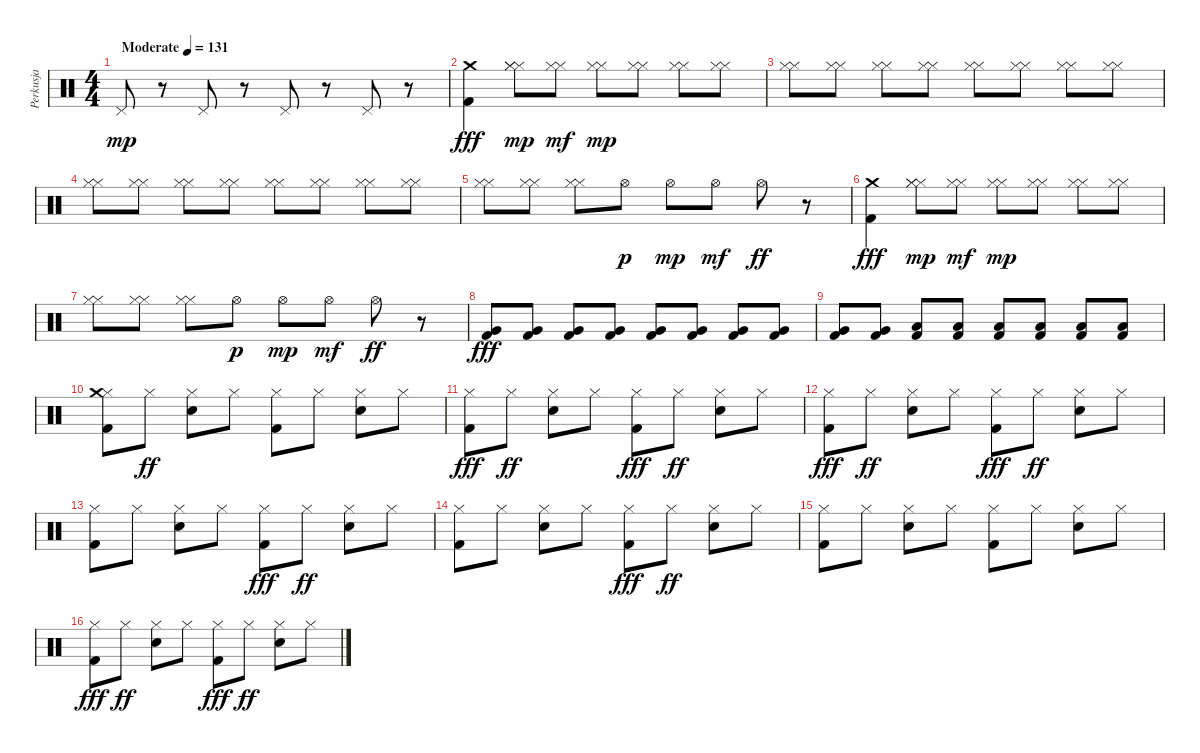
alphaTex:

\track ("Perkusja" "Perkusja") {instrument percussion}
\staff {score}
\articulation defaults
\ts (4 4)
\tempo (131 "Moderate")
\clef neutral
\ks c "Pedal Hi-Hat (hit)".8{dy mp}
r.8 "Pedal Hi-Hat (hit)".8 r.8 "Pedal Hi-Hat (hit)".8 r.8 "Pedal Hi-Hat (hit)".8 r.8 |
("Crash medium (hit)" "Kick (hit) 2").4{dy fff} ("Hi-Hat (closed)" "Hi-Hat (closed)" "Hi-Hat (closed)").8{dy mp} ("Hi-Hat (closed)" "Hi-Hat (closed)").8{dy mf} ("Hi-Hat (closed)" "Hi-Hat (closed)").8{dy mp} ("Hi-Hat (closed)" "Hi-Hat (closed)").8 ("Hi-Hat (closed)" "Hi-Hat (closed)").8 ("Hi-Hat (closed)" "Hi-Hat (closed)").8 |
("Hi-Hat (closed)" "Hi-Hat (closed)").8 ("Hi-Hat (closed)" "Hi-Hat (closed)").8 ("Hi-Hat (closed)" "Hi-Hat (closed)").8 ("Hi-Hat (closed)" "Hi-Hat (closed)").8 ("Hi-Hat (closed)" "Hi-Hat (closed)").8 ("Hi-Hat (closed)" "Hi-Hat (closed)").8 ("Hi-Hat (closed)" "Hi-Hat (closed)").8 ("Hi-Hat (closed)" "Hi-Hat (closed)").8 |
("Hi-Hat (closed)" "Hi-Hat (closed)").8 ("Hi-Hat (closed)" "Hi-Hat (closed)").8 ("Hi-Hat (closed)" "Hi-Hat (closed)").8 ("Hi-Hat (closed)" "Hi-Hat (closed)").8 ("Hi-Hat (closed)" "Hi-Hat (closed)").8 ("Hi-Hat (closed)" "Hi-Hat (closed)").8 ("Hi-Hat (closed)" "Hi-Hat (closed)").8 ("Hi-Hat (closed)" "Hi-Hat (closed)").8 |
("Hi-Hat (closed)" "Hi-Hat (closed)").8 ("Hi-Hat (closed)" "Hi-Hat (closed)").8 ("Hi-Hat (closed)" "Hi-Hat (closed)").8 "Hi-Hat (open)".8{dy p} "Hi-Hat (open)".8{dy mp} "Hi-Hat (open)".8{dy mf} "Hi-Hat (open)".8{dy ff} r.8 |
("Crash medium (hit)" "Kick (hit) 2").4{dy fff} ("Hi-Hat (closed)" "Hi-Hat (closed)" "Hi-Hat (closed)").8{dy mp} ("Hi-Hat (closed)" "Hi-Hat (closed)").8{dy mf} ("Hi-Hat (closed)" "Hi-Hat (closed)").8{dy mp} ("Hi-Hat (closed)" "Hi-Hat (closed)").8 ("Hi-Hat (closed)" "Hi-Hat (closed)").8 ("Hi-Hat (closed)" "Hi-Hat (closed)").8 |
("Hi-Hat (closed)" "Hi-Hat (closed)").8 ("Hi-Hat (closed)" "Hi-Hat (closed)").8 ("Hi-Hat (closed)" "Hi-Hat (closed)").8 "Hi-Hat (open)".8{dy p} "Hi-Hat (open)".8{dy mp} "Hi-Hat (open)".8{dy mf} "Hi-Hat (open)".8{dy ff} r.8 |
("Kick (hit) 2" "Very Low Tom (hit)").8{dy fff} ("Very Low Tom (hit)" "Kick (hit) 2").8 ("Very Low Tom (hit)" "Kick (hit) 2").8 ("Very Low Tom (hit)" "Kick (hit) 2").8 ("Kick (hit) 2" "Very Low Tom (hit)").8 ("Very Low Tom (hit)" "Kick (hit) 2").8 ("Very Low Tom (hit)" "Kick (hit) 2").8 ("Kick (hit) 2" "Very Low Tom (hit)").8 |
("Very Low Tom (hit)" "Kick (hit) 2").8 ("Very Low Tom (hit)" "Kick (hit) 2").8 ("Kick (hit) 2" "Low Floor Tom (hit)").8 ("Low Floor Tom (hit)" "Kick (hit) 2").8 ("Kick (hit) 2" "Low Floor Tom (hit)").8 ("Kick (hit) 2" "Low Floor Tom (hit)").8 ("Kick (hit) 2" "Low Floor Tom (hit)").8 ("Kick (hit) 2" "Low Floor Tom (hit)").8 |
("Hi-Hat (closed)" "Kick (hit) 2" "Crash medium (hit)").8 "Hi-Hat (closed)".8{dy ff} ("Hi-Hat (closed)" "Electric Snare (hit)").8 "Hi-Hat (closed)".8 ("Kick (hit) 2" "Hi-Hat (closed)").8 "Hi-Hat (closed)".8 ("Hi-Hat (closed)" "Electric Snare (hit)").8 "Hi-Hat (closed)".8 |
("Hi-Hat (closed)" "Kick (hit) 2").8{dy fff} "Hi-Hat (closed)".8{dy ff} ("Electric Snare (hit)" "Hi-Hat (closed)").8 "Hi-Hat (closed)".8 ("Hi-Hat (closed)" "Kick (hit) 2").8{dy fff} "Hi-Hat (closed)".8{dy ff} ("Hi-Hat (closed)" "Electric Snare (hit)").8 "Hi-Hat (closed)".8 |
("Hi-Hat (closed)" "Kick (hit) 2").8{dy fff} "Hi-Hat (closed)".8{dy ff} ("Electric Snare (hit)" "Hi-Hat (closed)").8 "Hi-Hat (closed)".8 ("Hi-Hat (closed)" "Kick (hit) 2").8{dy fff} "Hi-Hat (closed)".8{dy ff} ("Electric Snare (hit)" "Hi-Hat (closed)").8 "Hi-Hat (closed)".8 |
("Kick (hit) 2" "Hi-Hat (closed)").8 "Hi-Hat (closed)".8 ("Hi-Hat (closed)" "Electric Snare (hit)").8 "Hi-Hat (closed)".8 ("Hi-Hat (closed)" "Kick (hit) 2").8{dy fff} "Hi-Hat (closed)".8{dy ff} ("Electric Snare (hit)" "Hi-Hat (closed)").8 "Hi-Hat (closed)".8 |
("Kick (hit) 2" "Hi-Hat (closed)").8 "Hi-Hat (closed)".8 ("Hi-Hat (closed)" "Electric Snare (hit)").8 "Hi-Hat (closed)".8 ("Hi-Hat (closed)" "Kick (hit) 2").8{dy fff} "Hi-Hat (closed)".8{dy ff} ("Electric Snare (hit)" "Hi-Hat (closed)").8 "Hi-Hat (closed)".8 |
("Kick (hit) 2" "Hi-Hat (closed)").8 "Hi-Hat (closed)".8 ("Electric Snare (hit)" "Hi-Hat (closed)").8 "Hi-Hat (closed)".8 ("Kick (hit) 2" "Hi-Hat (closed)").8 "Hi-Hat (closed)".8 ("Electric Snare (hit)" "Hi-Hat (closed)").8 "Hi-Hat (closed)".8 |
("Hi-Hat (closed)" "Kick (hit) 2").8{dy fff} "Hi-Hat (closed)".8{dy ff} ("Electric Snare (hit)" "Hi-Hat (closed)").8 "Hi-Hat (closed)".8 ("Hi-Hat (closed)" "Kick (hit) 2").8{dy fff} "Hi-Hat (closed)".8{dy ff} ("Hi-Hat (closed)" "Electric Snare (hit)").8 "Hi-Hat (closed)".8
